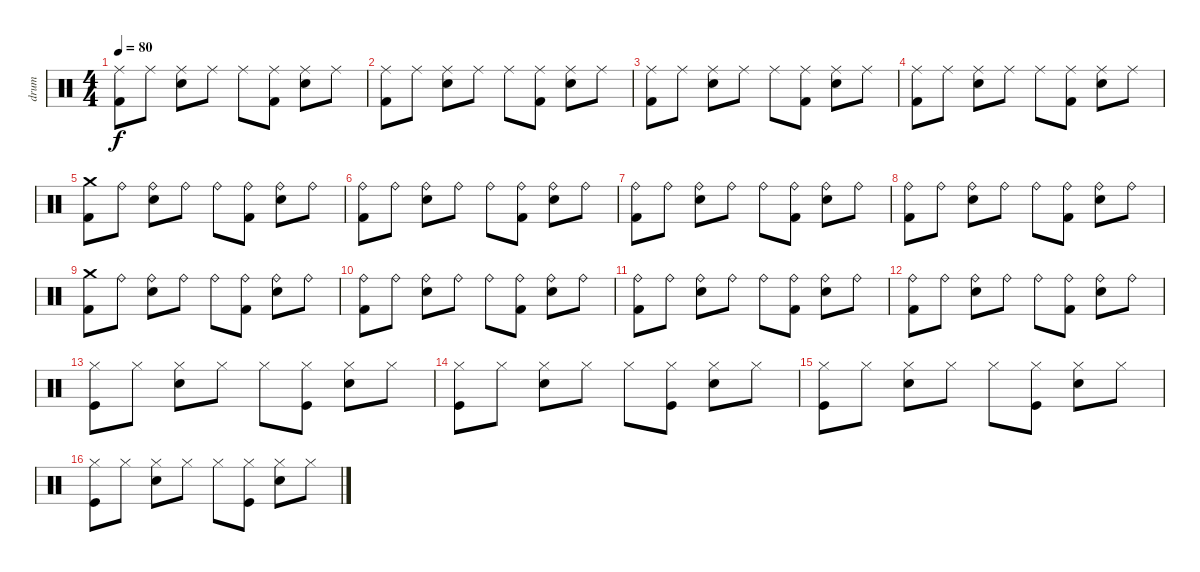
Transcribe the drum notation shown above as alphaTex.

\track ("drum" "drum") {instrument percussion}
\staff {score}
\articulation defaults
\ts (4 4)
\tempo 80
\clef neutral
\ks c
("Ride (middle)" "Kick (hit) 2").8{dy f} "Ride (middle)".8 ("Ride (middle)" "Snare (hit) 2").8 "Ride (middle)".8 "Ride (middle)".8 ("Ride (middle)" "Kick (hit) 2").8 ("Ride (middle)" "Snare (hit) 2").8 "Ride (middle)".8 |
("Ride (middle)" "Kick (hit) 2").8 "Ride (middle)".8 ("Ride (middle)" "Snare (hit) 2").8 "Ride (middle)".8 "Ride (middle)".8 ("Ride (middle)" "Kick (hit) 2").8 ("Ride (middle)" "Snare (hit) 2").8 "Ride (middle)".8 |
("Ride (middle)" "Kick (hit) 2").8 "Ride (middle)".8 ("Ride (middle)" "Snare (hit) 2").8 "Ride (middle)".8 "Ride (middle)".8 ("Ride (middle)" "Kick (hit) 2").8 ("Ride (middle)" "Snare (hit) 2").8 "Ride (middle)".8 |
("Ride (middle)" "Kick (hit) 2").8 "Ride (middle)".8 ("Ride (middle)" "Snare (hit) 2").8 "Ride (middle)".8 "Ride (middle)".8 ("Ride (middle)" "Kick (hit) 2").8 ("Ride (middle)" "Snare (hit) 2").8 "Ride (middle)".8 |
("Crash medium (hit)" "Kick (hit) 2").8 "Ride (bell)".8 ("Ride (bell)" "Snare (hit) 2").8 "Ride (bell)".8 "Ride (bell)".8 ("Ride (bell)" "Kick (hit) 2").8 ("Ride (bell)" "Snare (hit) 2").8 "Ride (bell)".8 |
("Ride (bell)" "Kick (hit) 2").8 "Ride (bell)".8 ("Ride (bell)" "Snare (hit) 2").8 "Ride (bell)".8 "Ride (bell)".8 ("Ride (bell)" "Kick (hit) 2").8 ("Ride (bell)" "Snare (hit) 2").8 "Ride (bell)".8 |
("Ride (bell)" "Kick (hit) 2").8 "Ride (bell)".8 ("Ride (bell)" "Snare (hit) 2").8 "Ride (bell)".8 "Ride (bell)".8 ("Ride (bell)" "Kick (hit) 2").8 ("Ride (bell)" "Snare (hit) 2").8 "Ride (bell)".8 |
("Ride (bell)" "Kick (hit) 2").8 "Ride (bell)".8 ("Ride (bell)" "Snare (hit) 2").8 "Ride (bell)".8 "Ride (bell)".8 ("Ride (bell)" "Kick (hit) 2").8 ("Ride (bell)" "Snare (hit) 2").8 "Ride (bell)".8 |
("Crash medium (hit)" "Kick (hit) 2").8 "Ride (bell)".8 ("Ride (bell)" "Snare (hit) 2").8 "Ride (bell)".8 "Ride (bell)".8 ("Ride (bell)" "Kick (hit) 2").8 ("Ride (bell)" "Snare (hit) 2").8 "Ride (bell)".8 |
("Ride (bell)" "Kick (hit) 2").8 "Ride (bell)".8 ("Ride (bell)" "Snare (hit) 2").8 "Ride (bell)".8 "Ride (bell)".8 ("Ride (bell)" "Kick (hit) 2").8 ("Ride (bell)" "Snare (hit) 2").8 "Ride (bell)".8 |
("Ride (bell)" "Kick (hit) 2").8 "Ride (bell)".8 ("Ride (bell)" "Snare (hit) 2").8 "Ride (bell)".8 "Ride (bell)".8 ("Ride (bell)" "Kick (hit) 2").8 ("Ride (bell)" "Snare (hit) 2").8 "Ride (bell)".8 |
("Ride (bell)" "Kick (hit) 2").8 "Ride (bell)".8 ("Ride (bell)" "Snare (hit) 2").8 "Ride (bell)".8 "Ride (bell)".8 ("Ride (bell)" "Kick (hit) 2").8 ("Ride (bell)" "Snare (hit) 2").8 "Ride (bell)".8 |
("Hi-Hat (closed)" "Kick (hit)").8 "Hi-Hat (closed)".8 ("Hi-Hat (closed)" "Electric Snare (hit)").8 "Hi-Hat (closed)".8 "Hi-Hat (closed)".8 ("Hi-Hat (closed)" "Kick (hit)").8 ("Hi-Hat (closed)" "Electric Snare (hit)").8 "Hi-Hat (closed)".8 |
("Hi-Hat (closed)" "Kick (hit)").8 "Hi-Hat (closed)".8 ("Hi-Hat (closed)" "Electric Snare (hit)").8 "Hi-Hat (closed)".8 "Hi-Hat (closed)".8 ("Hi-Hat (closed)" "Kick (hit)").8 ("Hi-Hat (closed)" "Electric Snare (hit)").8 "Hi-Hat (closed)".8 |
("Hi-Hat (closed)" "Kick (hit)").8 "Hi-Hat (closed)".8 ("Hi-Hat (closed)" "Electric Snare (hit)").8 "Hi-Hat (closed)".8 "Hi-Hat (closed)".8 ("Hi-Hat (closed)" "Kick (hit)").8 ("Hi-Hat (closed)" "Electric Snare (hit)").8 "Hi-Hat (closed)".8 |
("Hi-Hat (closed)" "Kick (hit)").8 "Hi-Hat (closed)".8 ("Hi-Hat (closed)" "Electric Snare (hit)").8 "Hi-Hat (closed)".8 "Hi-Hat (closed)".8 ("Hi-Hat (closed)" "Kick (hit)").8 ("Hi-Hat (closed)" "Electric Snare (hit)").8 "Hi-Hat (closed)".8
